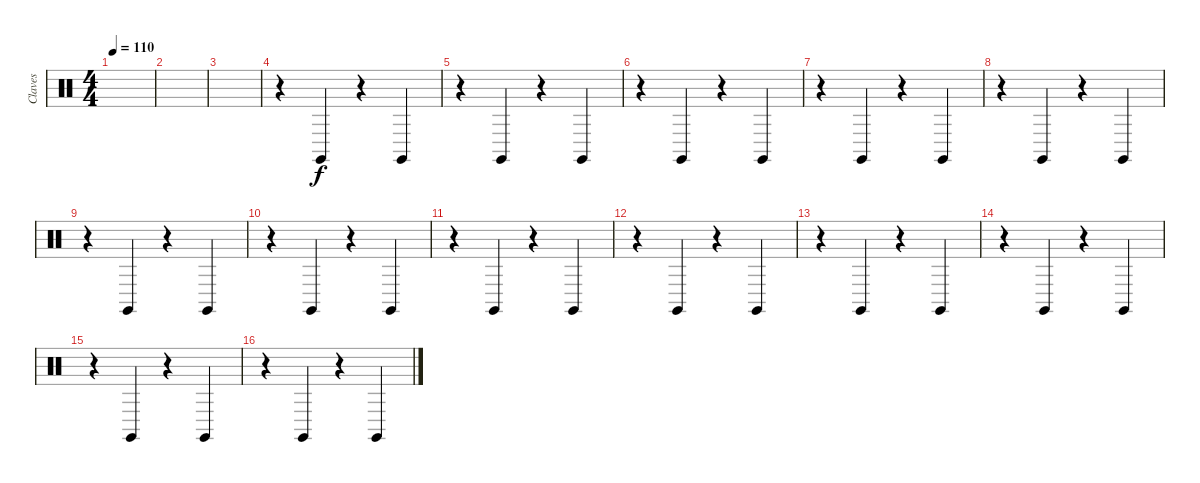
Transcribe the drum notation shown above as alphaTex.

\track ("Claves" "Claves") {instrument percussion}
\staff {score}
\articulation defaults
\ts (4 4)
\tempo 110
\clef neutral
\ks c
|
|
|
r.4 "Claves (hit)".4 r.4 "Claves (hit)".4 |
r.4 "Claves (hit)".4 r.4 "Claves (hit)".4 |
r.4 "Claves (hit)".4 r.4 "Claves (hit)".4 |
r.4 "Claves (hit)".4 r.4 "Claves (hit)".4 |
r.4 "Claves (hit)".4 r.4 "Claves (hit)".4 |
r.4 "Claves (hit)".4 r.4 "Claves (hit)".4 |
r.4 "Claves (hit)".4 r.4 "Claves (hit)".4 |
r.4 "Claves (hit)".4 r.4 "Claves (hit)".4 |
r.4 "Claves (hit)".4 r.4 "Claves (hit)".4 |
r.4 "Claves (hit)".4 r.4 "Claves (hit)".4 |
r.4 "Claves (hit)".4 r.4 "Claves (hit)".4 |
r.4 "Claves (hit)".4 r.4 "Claves (hit)".4 |
r.4 "Claves (hit)".4 r.4 "Claves (hit)".4
